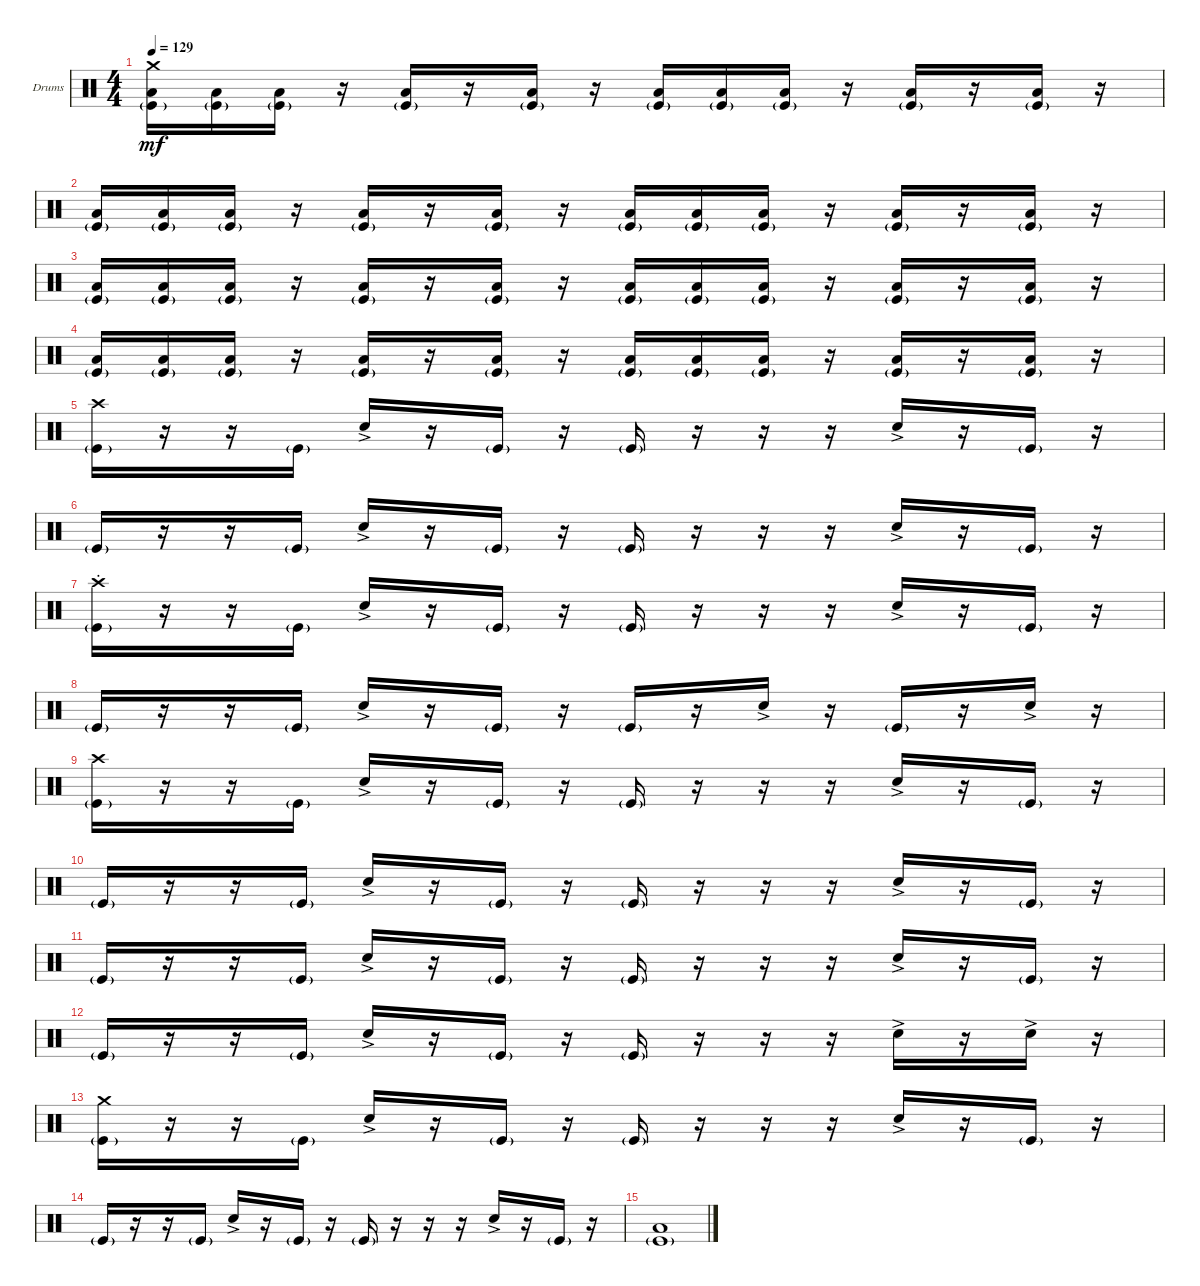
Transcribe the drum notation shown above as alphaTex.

\defaultSystemsLayout 4
\bracketExtendMode groupsimilarinstruments
\firstSystemTrackNameOrientation horizontal
\otherSystemsTrackNameOrientation horizontal
\track ("Drums" "Drums") {instrument percussion}
\staff {score}
\articulation defaults
\ts (4 4)
\tempo 129
\clef neutral
\ks c
("Kick (hit)"{g} "Low Tom (hit)" "Crash medium (hit)").16{dy mf} ("Kick (hit)"{g} "Low Tom (hit)").16 ("Kick (hit)"{g} "Low Tom (hit)").16 r.16 ("Kick (hit)"{g} "Low Tom (hit)").16 r.16 ("Kick (hit)"{g} "Low Tom (hit)").16 r.16 ("Kick (hit)"{g} "Low Tom (hit)").16 ("Kick (hit)"{g} "Low Tom (hit)").16 ("Kick (hit)"{g} "Low Tom (hit)").16 r.16 ("Kick (hit)"{g} "Low Tom (hit)").16 r.16 ("Kick (hit)"{g} "Low Tom (hit)").16 r.16 |
("Kick (hit)"{g} "Low Tom (hit)").16 ("Kick (hit)"{g} "Low Tom (hit)").16 ("Kick (hit)"{g} "Low Tom (hit)").16 r.16 ("Kick (hit)"{g} "Low Tom (hit)").16 r.16 ("Kick (hit)"{g} "Low Tom (hit)").16 r.16 ("Kick (hit)"{g} "Low Tom (hit)").16 ("Kick (hit)"{g} "Low Tom (hit)").16 ("Kick (hit)"{g} "Low Tom (hit)").16 r.16 ("Kick (hit)"{g} "Low Tom (hit)").16 r.16 ("Kick (hit)"{g} "Low Tom (hit)").16 r.16 |
("Kick (hit)"{g} "Low Tom (hit)").16 ("Kick (hit)"{g} "Low Tom (hit)").16 ("Kick (hit)"{g} "Low Tom (hit)").16 r.16 ("Kick (hit)"{g} "Low Tom (hit)").16 r.16 ("Kick (hit)"{g} "Low Tom (hit)").16 r.16 ("Kick (hit)"{g} "Low Tom (hit)").16 ("Kick (hit)"{g} "Low Tom (hit)").16 ("Kick (hit)"{g} "Low Tom (hit)").16 r.16 ("Kick (hit)"{g} "Low Tom (hit)").16 r.16 ("Kick (hit)"{g} "Low Tom (hit)").16 r.16 |
("Kick (hit)"{g} "Low Tom (hit)").16 ("Kick (hit)"{g} "Low Tom (hit)").16 ("Kick (hit)"{g} "Low Tom (hit)").16 r.16 ("Kick (hit)"{g} "Low Tom (hit)").16 r.16 ("Kick (hit)"{g} "Low Tom (hit)").16 r.16 ("Kick (hit)"{g} "Low Tom (hit)").16 ("Kick (hit)"{g} "Low Tom (hit)").16 ("Kick (hit)"{g} "Low Tom (hit)").16 r.16 ("Kick (hit)"{g} "Low Tom (hit)").16 r.16 ("Kick (hit)"{g} "Low Tom (hit)").16 r.16 |
("Kick (hit)"{g} "Crash high (hit)").16 r.16 r.16 "Kick (hit)"{g}.16 "Snare (hit) 2"{ac}.16 r.16 "Kick (hit)"{g}.16 r.16 "Kick (hit)"{g}.16 r.16 r.16 r.16 "Snare (hit) 2"{ac}.16 r.16 "Kick (hit)"{g}.16 r.16 |
"Kick (hit)"{g}.16 r.16 r.16 "Kick (hit)"{g}.16 "Snare (hit) 2"{ac}.16 r.16 "Kick (hit)"{g}.16 r.16 "Kick (hit)"{g}.16 r.16 r.16 r.16 "Snare (hit) 2"{ac}.16 r.16 "Kick (hit)"{g}.16 r.16 |
("Kick (hit)"{g} "Crash high (hit)"{st}).16 r.16 r.16 "Kick (hit)"{g}.16 "Snare (hit) 2"{ac}.16 r.16 "Kick (hit)"{g}.16 r.16 "Kick (hit)"{g}.16 r.16 r.16 r.16 "Snare (hit) 2"{ac}.16 r.16 "Kick (hit)"{g}.16 r.16 |
"Kick (hit)"{g}.16 r.16 r.16 "Kick (hit)"{g}.16 "Snare (hit) 2"{ac}.16 r.16 "Kick (hit)"{g}.16 r.16 "Kick (hit)"{g}.16 r.16 "Snare (hit) 2"{ac}.16 r.16 "Kick (hit)"{g}.16 r.16 "Snare (hit) 2"{ac}.16 r.16 |
("Kick (hit)"{g} "Crash high (hit)").16 r.16 r.16 "Kick (hit)"{g}.16 "Snare (hit) 2"{ac}.16 r.16 "Kick (hit)"{g}.16 r.16 "Kick (hit)"{g}.16 r.16 r.16 r.16 "Snare (hit) 2"{ac}.16 r.16 "Kick (hit)"{g}.16 r.16 |
"Kick (hit)"{g}.16 r.16 r.16 "Kick (hit)"{g}.16 "Snare (hit) 2"{ac}.16 r.16 "Kick (hit)"{g}.16 r.16 "Kick (hit)"{g}.16 r.16 r.16 r.16 "Snare (hit) 2"{ac}.16 r.16 "Kick (hit)"{g}.16 r.16 |
"Kick (hit)"{g}.16 r.16 r.16 "Kick (hit)"{g}.16 "Snare (hit) 2"{ac}.16 r.16 "Kick (hit)"{g}.16 r.16 "Kick (hit)"{g}.16 r.16 r.16 r.16 "Snare (hit) 2"{ac}.16 r.16 "Kick (hit)"{g}.16 r.16 |
"Kick (hit)"{g}.16 r.16 r.16 "Kick (hit)"{g}.16 "Snare (hit) 2"{ac}.16 r.16 "Kick (hit)"{g}.16 r.16 "Kick (hit)"{g}.16 r.16 r.16 r.16 "Snare (hit) 2"{ac}.16 r.16 "Snare (hit) 2"{ac}.16 r.16 |
("Kick (hit)"{g} "Crash medium (hit)").16 r.16 r.16 "Kick (hit)"{g}.16 "Snare (hit) 2"{ac}.16 r.16 "Kick (hit)"{g}.16 r.16 "Kick (hit)"{g}.16 r.16 r.16 r.16 "Snare (hit) 2"{ac}.16 r.16 "Kick (hit)"{g}.16 r.16 |
"Kick (hit)"{g}.16 r.16 r.16 "Kick (hit)"{g}.16 "Snare (hit) 2"{ac}.16 r.16 "Kick (hit)"{g}.16 r.16 "Kick (hit)"{g}.16 r.16 r.16 r.16 "Snare (hit) 2"{ac}.16 r.16 "Kick (hit)"{g}.16 r.16 |
("Kick (hit)"{g} "Low Tom (hit)").1
